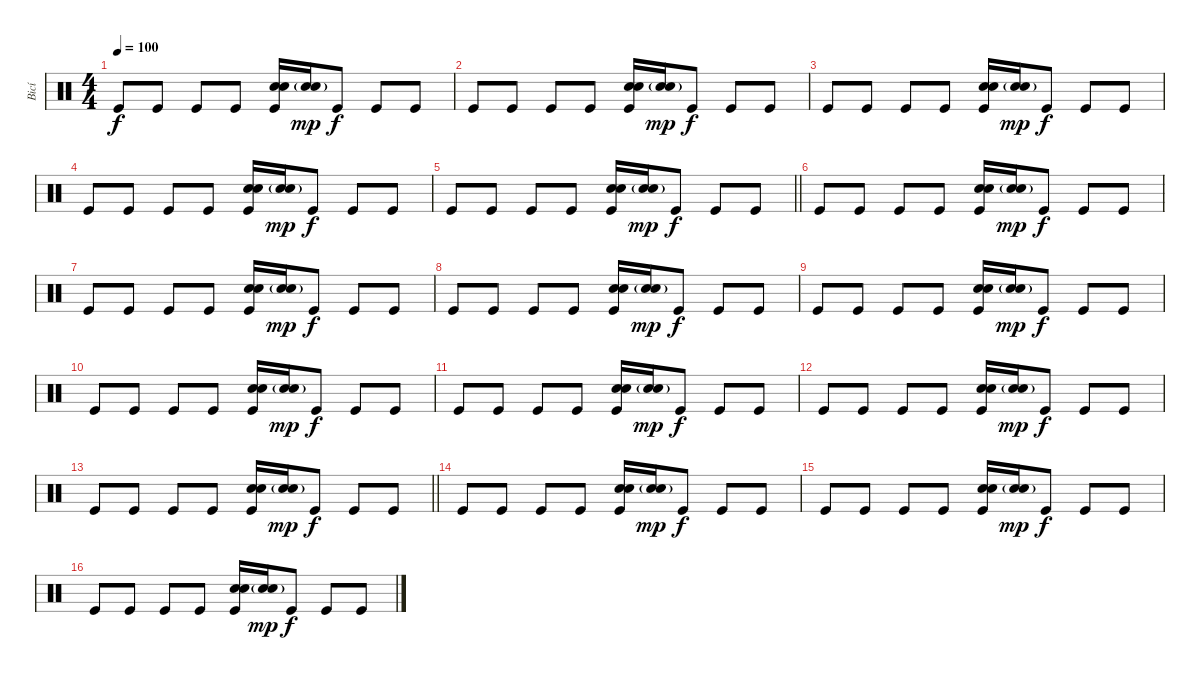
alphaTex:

\track ("Bicí" "Bicí") {instrument percussion}
\staff {score}
\articulation defaults
\ts (4 4)
\tempo 100
\clef neutral
\ks c "Kick (hit)".8{dy f} "Kick (hit)".8 "Kick (hit)".8 "Kick (hit)".8
("Hand Clap (hit)" "Electric Snare (hit)" "Kick (hit)").16 ("Hand Clap (hit)"{g} "Electric Snare (hit)"{g}).16{dy mp} "Kick (hit)".8{dy f} "Kick (hit)".8 "Kick (hit)".8 |
"Kick (hit)".8 "Kick (hit)".8 "Kick (hit)".8 "Kick (hit)".8 ("Hand Clap (hit)" "Electric Snare (hit)" "Kick (hit)").16 ("Hand Clap (hit)"{g} "Electric Snare (hit)"{g}).16{dy mp} "Kick (hit)".8{dy f} "Kick (hit)".8 "Kick (hit)".8 |
"Kick (hit)".8 "Kick (hit)".8 "Kick (hit)".8 "Kick (hit)".8 ("Hand Clap (hit)" "Electric Snare (hit)" "Kick (hit)").16 ("Hand Clap (hit)"{g} "Electric Snare (hit)"{g}).16{dy mp} "Kick (hit)".8{dy f} "Kick (hit)".8 "Kick (hit)".8 |
"Kick (hit)".8 "Kick (hit)".8 "Kick (hit)".8 "Kick (hit)".8 ("Hand Clap (hit)" "Electric Snare (hit)" "Kick (hit)").16 ("Hand Clap (hit)"{g} "Electric Snare (hit)"{g}).16{dy mp} "Kick (hit)".8{dy f} "Kick (hit)".8 "Kick (hit)".8 |
\barLineRight lightlight "Kick (hit)".8 "Kick (hit)".8 "Kick (hit)".8 "Kick (hit)".8
("Hand Clap (hit)" "Electric Snare (hit)" "Kick (hit)").16 ("Hand Clap (hit)"{g} "Electric Snare (hit)"{g}).16{dy mp} "Kick (hit)".8{dy f} "Kick (hit)".8 "Kick (hit)".8 |
\section ("" "")
"Kick (hit)".8{volume 16} "Kick (hit)".8 "Kick (hit)".8 "Kick (hit)".8 ("Hand Clap (hit)" "Electric Snare (hit)" "Kick (hit)").16 ("Hand Clap (hit)"{g} "Electric Snare (hit)"{g}).16{dy mp} "Kick (hit)".8{dy f} "Kick (hit)".8 "Kick (hit)".8 |
"Kick (hit)".8 "Kick (hit)".8 "Kick (hit)".8 "Kick (hit)".8 ("Hand Clap (hit)" "Electric Snare (hit)" "Kick (hit)").16 ("Hand Clap (hit)"{g} "Electric Snare (hit)"{g}).16{dy mp} "Kick (hit)".8{dy f} "Kick (hit)".8 "Kick (hit)".8 |
"Kick (hit)".8 "Kick (hit)".8 "Kick (hit)".8 "Kick (hit)".8 ("Hand Clap (hit)" "Electric Snare (hit)" "Kick (hit)").16 ("Hand Clap (hit)"{g} "Electric Snare (hit)"{g}).16{dy mp} "Kick (hit)".8{dy f} "Kick (hit)".8 "Kick (hit)".8 |
"Kick (hit)".8 "Kick (hit)".8 "Kick (hit)".8 "Kick (hit)".8 ("Hand Clap (hit)" "Electric Snare (hit)" "Kick (hit)").16 ("Hand Clap (hit)"{g} "Electric Snare (hit)"{g}).16{dy mp} "Kick (hit)".8{dy f} "Kick (hit)".8 "Kick (hit)".8 |
"Kick (hit)".8 "Kick (hit)".8 "Kick (hit)".8 "Kick (hit)".8 ("Hand Clap (hit)" "Electric Snare (hit)" "Kick (hit)").16 ("Hand Clap (hit)"{g} "Electric Snare (hit)"{g}).16{dy mp} "Kick (hit)".8{dy f} "Kick (hit)".8 "Kick (hit)".8 |
"Kick (hit)".8 "Kick (hit)".8 "Kick (hit)".8 "Kick (hit)".8 ("Hand Clap (hit)" "Electric Snare (hit)" "Kick (hit)").16 ("Hand Clap (hit)"{g} "Electric Snare (hit)"{g}).16{dy mp} "Kick (hit)".8{dy f} "Kick (hit)".8 "Kick (hit)".8 |
"Kick (hit)".8 "Kick (hit)".8 "Kick (hit)".8 "Kick (hit)".8 ("Hand Clap (hit)" "Electric Snare (hit)" "Kick (hit)").16 ("Hand Clap (hit)"{g} "Electric Snare (hit)"{g}).16{dy mp} "Kick (hit)".8{dy f} "Kick (hit)".8 "Kick (hit)".8 |
\barLineRight lightlight "Kick (hit)".8 "Kick (hit)".8 "Kick (hit)".8 "Kick (hit)".8
("Hand Clap (hit)" "Electric Snare (hit)" "Kick (hit)").16 ("Hand Clap (hit)"{g} "Electric Snare (hit)"{g}).16{dy mp} "Kick (hit)".8{dy f} "Kick (hit)".8 "Kick (hit)".8 |
"Kick (hit)".8 "Kick (hit)".8 "Kick (hit)".8 "Kick (hit)".8 ("Hand Clap (hit)" "Electric Snare (hit)" "Kick (hit)").16 ("Hand Clap (hit)"{g} "Electric Snare (hit)"{g}).16{dy mp} "Kick (hit)".8{dy f} "Kick (hit)".8 "Kick (hit)".8 |
"Kick (hit)".8 "Kick (hit)".8 "Kick (hit)".8 "Kick (hit)".8 ("Hand Clap (hit)" "Electric Snare (hit)" "Kick (hit)").16 ("Hand Clap (hit)"{g} "Electric Snare (hit)"{g}).16{dy mp} "Kick (hit)".8{dy f} "Kick (hit)".8 "Kick (hit)".8 |
"Kick (hit)".8 "Kick (hit)".8 "Kick (hit)".8 "Kick (hit)".8 ("Hand Clap (hit)" "Electric Snare (hit)" "Kick (hit)").16 ("Hand Clap (hit)"{g} "Electric Snare (hit)"{g}).16{dy mp} "Kick (hit)".8{dy f} "Kick (hit)".8 "Kick (hit)".8
